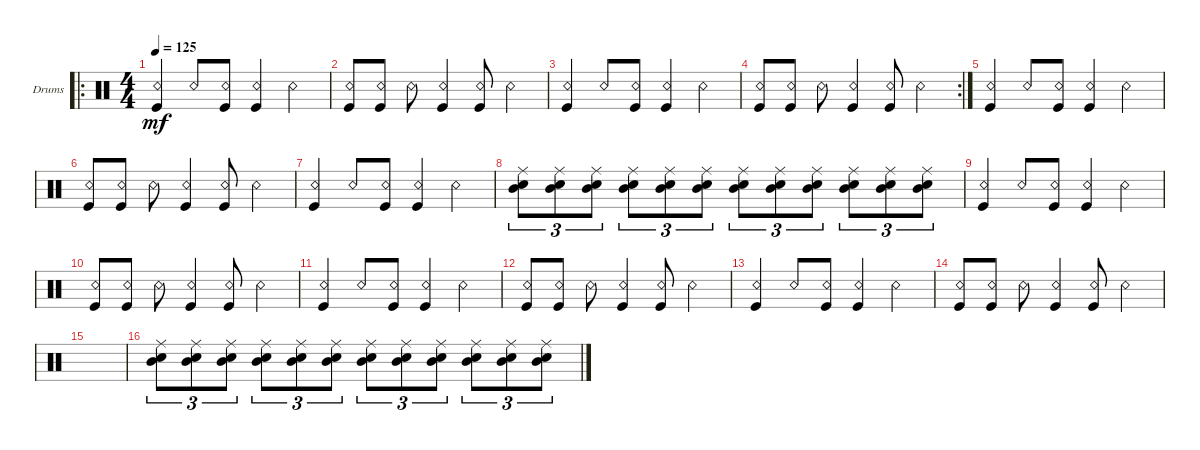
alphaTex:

\defaultSystemsLayout 4
\bracketExtendMode groupsimilarinstruments
\firstSystemTrackNameOrientation horizontal
\otherSystemsTrackNameOrientation horizontal
\track ("Drumkit" "Drums") {instrument percussion}
\staff {score}
\articulation defaults
\ro
\ts (4 4)
\tempo 125
\clef neutral
\scale
0.377049
\ks c
("Kick (hit)" "Snare (rim shot)").4{dy mf} "Snare (rim shot)".8 ("Kick (hit)" "Snare (rim shot)").8 ("Kick (hit)" "Snare (rim shot)").4 "Snare (rim shot)".4 |
\scale
0.322034 ("Snare (rim shot)" "Kick (hit)").8 ("Snare (rim shot)" "Kick (hit)").8 "Snare (rim shot)".8 ("Snare (rim shot)" "Kick (hit)").4 ("Snare (rim shot)" "Kick (hit)").8 "Snare (rim shot)".4 |
\scale
0.322034 ("Kick (hit)" "Snare (rim shot)").4 "Snare (rim shot)".8 ("Kick (hit)" "Snare (rim shot)").8 ("Kick (hit)" "Snare (rim shot)").4 "Snare (rim shot)".4 |
\rc 2
\scale
0.355932 ("Snare (rim shot)" "Kick (hit)").8 ("Snare (rim shot)" "Kick (hit)").8 "Snare (rim shot)".8 ("Snare (rim shot)" "Kick (hit)").4 ("Snare (rim shot)" "Kick (hit)").8 "Snare (rim shot)".4 |
\scale
0.333333 ("Kick (hit)" "Snare (rim shot)").4 "Snare (rim shot)".8 ("Kick (hit)" "Snare (rim shot)").8 ("Kick (hit)" "Snare (rim shot)").4 "Snare (rim shot)".4 |
\scale
0.333333 ("Snare (rim shot)" "Kick (hit)").8 ("Snare (rim shot)" "Kick (hit)").8 "Snare (rim shot)".8 ("Snare (rim shot)" "Kick (hit)").4 ("Snare (rim shot)" "Kick (hit)").8 "Snare (rim shot)".4 |
\scale
0.333333 ("Kick (hit)" "Snare (rim shot)").4 "Snare (rim shot)".8 ("Kick (hit)" "Snare (rim shot)").8 ("Kick (hit)" "Snare (rim shot)").4 "Snare (rim shot)".4 |
\scale
0.333333 ("Mid Tom (hit)" "Ride (middle)" "Snare (hit) 2").8{tu (3 2)} ("Mid Tom (hit)" "Ride (middle)" "Snare (hit) 2").8{tu (3 2)} ("Mid Tom (hit)" "Ride (middle)" "Snare (hit) 2").8{tu (3 2)} ("Mid Tom (hit)" "Ride (middle)" "Snare (hit) 2").8{tu (3 2)} ("Mid Tom (hit)" "Ride (middle)" "Snare (hit) 2").8{tu (3 2)} ("Mid Tom (hit)" "Ride (middle)" "Snare (hit) 2").8{tu (3 2)} ("Mid Tom (hit)" "Ride (middle)" "Snare (hit) 2").8{tu (3 2)} ("Mid Tom (hit)" "Ride (middle)" "Snare (hit) 2").8{tu (3 2)} ("Mid Tom (hit)" "Ride (middle)" "Snare (hit) 2").8{tu (3 2)} ("Mid Tom (hit)" "Ride (middle)" "Snare (hit) 2").8{tu (3 2)} ("Mid Tom (hit)" "Ride (middle)" "Snare (hit) 2").8{tu (3 2)} ("Mid Tom (hit)" "Ride (middle)" "Snare (hit) 2").8{tu (3 2)} |
\scale
0.333333 ("Kick (hit)" "Snare (rim shot)").4 "Snare (rim shot)".8 ("Kick (hit)" "Snare (rim shot)").8 ("Kick (hit)" "Snare (rim shot)").4 "Snare (rim shot)".4 |
\scale
0.333333 ("Snare (rim shot)" "Kick (hit)").8 ("Snare (rim shot)" "Kick (hit)").8 "Snare (rim shot)".8 ("Snare (rim shot)" "Kick (hit)").4 ("Snare (rim shot)" "Kick (hit)").8 "Snare (rim shot)".4 |
\scale
0.333333 ("Kick (hit)" "Snare (rim shot)").4 "Snare (rim shot)".8 ("Kick (hit)" "Snare (rim shot)").8 ("Kick (hit)" "Snare (rim shot)").4 "Snare (rim shot)".4 |
\scale
0.333333 ("Snare (rim shot)" "Kick (hit)").8 ("Snare (rim shot)" "Kick (hit)").8 "Snare (rim shot)".8 ("Snare (rim shot)" "Kick (hit)").4 ("Snare (rim shot)" "Kick (hit)").8 "Snare (rim shot)".4 |
\scale
0.333333 ("Kick (hit)" "Snare (rim shot)").4 "Snare (rim shot)".8 ("Kick (hit)" "Snare (rim shot)").8 ("Kick (hit)" "Snare (rim shot)").4 "Snare (rim shot)".4 |
\scale
0.333333 ("Snare (rim shot)" "Kick (hit)").8 ("Snare (rim shot)" "Kick (hit)").8 "Snare (rim shot)".8 ("Snare (rim shot)" "Kick (hit)").4 ("Snare (rim shot)" "Kick (hit)").8 "Snare (rim shot)".4 |
\scale
0.333333 |
\scale
0.333333 ("Mid Tom (hit)" "Ride (middle)" "Snare (hit) 2").8{tu (3 2)} ("Mid Tom (hit)" "Ride (middle)" "Snare (hit) 2").8{tu (3 2)} ("Mid Tom (hit)" "Ride (middle)" "Snare (hit) 2").8{tu (3 2)} ("Mid Tom (hit)" "Ride (middle)" "Snare (hit) 2").8{tu (3 2)} ("Mid Tom (hit)" "Ride (middle)" "Snare (hit) 2").8{tu (3 2)} ("Mid Tom (hit)" "Ride (middle)" "Snare (hit) 2").8{tu (3 2)} ("Mid Tom (hit)" "Ride (middle)" "Snare (hit) 2").8{tu (3 2)} ("Mid Tom (hit)" "Ride (middle)" "Snare (hit) 2").8{tu (3 2)} ("Mid Tom (hit)" "Ride (middle)" "Snare (hit) 2").8{tu (3 2)} ("Mid Tom (hit)" "Ride (middle)" "Snare (hit) 2").8{tu (3 2)} ("Mid Tom (hit)" "Ride (middle)" "Snare (hit) 2").8{tu (3 2)} ("Mid Tom (hit)" "Ride (middle)" "Snare (hit) 2").8{tu (3 2)}
